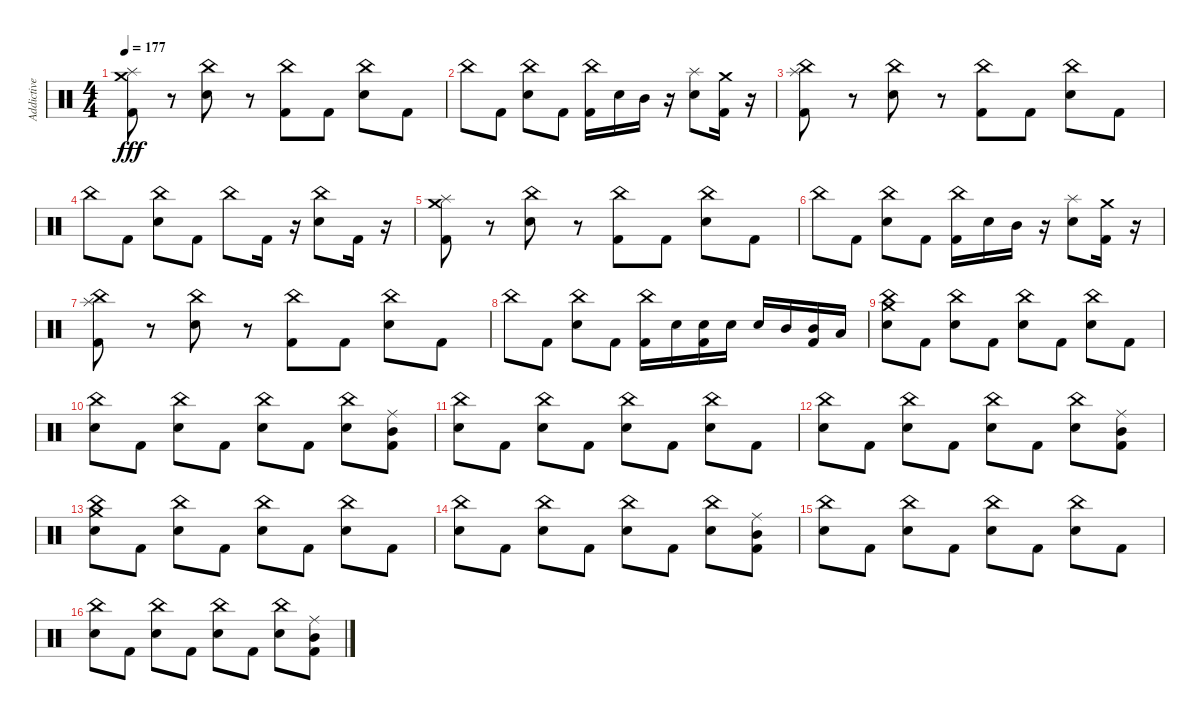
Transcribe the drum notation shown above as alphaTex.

\track ("Addictive" "Addictive") {instrument percussion}
\staff {score}
\articulation defaults
\ts (4 4)
\tempo 177
\clef neutral
\ks c
("Kick (hit) 2" "Splash (hit)" "Crash medium (hit)").8{dy fff} r.8 ("Snare (hit) 2" "China (hit)").8 r.8 ("Kick (hit) 2" "China (hit)").8 "Kick (hit) 2".8 ("Snare (hit) 2" "China (hit)").8 "Kick (hit) 2".8 |
"China (hit)".8 "Kick (hit) 2".8 ("Snare (hit) 2" "China (hit)").8 "Kick (hit) 2".8 ("Kick (hit) 2" "China (hit)").16 "Snare (hit) 2".16 "Mid Tom (hit)".16 r.16 ("Snare (hit) 2" "Splash (hit)").8 ("Kick (hit) 2" "Crash medium (hit)").16 r.16 |
("Kick (hit) 2" "Splash (hit)" "China (hit)").8 r.8 ("Snare (hit) 2" "China (hit)").8 r.8 ("Kick (hit) 2" "China (hit)").8 "Kick (hit) 2".8 ("Snare (hit) 2" "China (hit)").8 "Kick (hit) 2".8 |
"China (hit)".8 "Kick (hit) 2".8 ("Snare (hit) 2" "China (hit)").8 "Kick (hit) 2".8 "China (hit)".8 "Kick (hit) 2".16 r.16 ("Snare (hit) 2" "China (hit)").8 "Kick (hit) 2".16 r.16 |
("Kick (hit) 2" "Splash (hit)" "Crash medium (hit)").8 r.8 ("Snare (hit) 2" "China (hit)").8 r.8 ("Kick (hit) 2" "China (hit)").8 "Kick (hit) 2".8 ("Snare (hit) 2" "China (hit)").8 "Kick (hit) 2".8 |
"China (hit)".8 "Kick (hit) 2".8 ("Snare (hit) 2" "China (hit)").8 "Kick (hit) 2".8 ("Kick (hit) 2" "China (hit)").16 "Snare (hit) 2".16 "Mid Tom (hit)".16 r.16 ("Snare (hit) 2" "Splash (hit)").8 ("Kick (hit) 2" "Crash medium (hit)").16 r.16 |
("Kick (hit) 2" "Splash (hit)" "China (hit)").8 r.8 ("Snare (hit) 2" "China (hit)").8 r.8 ("Kick (hit) 2" "China (hit)").8 "Kick (hit) 2".8 ("Snare (hit) 2" "China (hit)").8 "Kick (hit) 2".8 |
"China (hit)".8 "Kick (hit) 2".8 ("Snare (hit) 2" "China (hit)").8 "Kick (hit) 2".8 ("Kick (hit) 2" "China (hit)").16 "Snare (hit) 2".16 ("Kick (hit) 2" "Snare (hit) 2").16 "Snare (hit) 2".16 "Snare (hit) 2".16 "Mid Tom (hit)".16 ("Kick (hit) 2" "Mid Tom (hit)").16 "Low Tom (hit)".16 |
("Snare (hit) 2" "Crash medium (hit)" "China (hit)").8 "Kick (hit) 2".8 ("Snare (hit) 2" "China (hit)").8 "Kick (hit) 2".8 ("Snare (hit) 2" "China (hit)").8 "Kick (hit) 2".8 ("Snare (hit) 2" "China (hit)").8 "Kick (hit) 2".8 |
("Snare (hit) 2" "China (hit)").8 "Kick (hit) 2".8 ("Snare (hit) 2" "China (hit)").8 "Kick (hit) 2".8 ("Snare (hit) 2" "China (hit)").8 "Kick (hit) 2".8 ("Snare (hit) 2" "China (hit)").8 ("Kick (hit) 2" "Ride (middle)" "Mid Tom (hit)").8 |
("Snare (hit) 2" "China (hit)").8 "Kick (hit) 2".8 ("Snare (hit) 2" "China (hit)").8 "Kick (hit) 2".8 ("Snare (hit) 2" "China (hit)").8 "Kick (hit) 2".8 ("Snare (hit) 2" "China (hit)").8 "Kick (hit) 2".8 |
("Snare (hit) 2" "China (hit)").8 "Kick (hit) 2".8 ("Snare (hit) 2" "China (hit)").8 "Kick (hit) 2".8 ("Snare (hit) 2" "China (hit)").8 "Kick (hit) 2".8 ("Snare (hit) 2" "China (hit)").8 ("Kick (hit) 2" "Ride (middle)" "Mid Tom (hit)").8 |
("Snare (hit) 2" "Crash medium (hit)" "China (hit)").8 "Kick (hit) 2".8 ("Snare (hit) 2" "China (hit)").8 "Kick (hit) 2".8 ("Snare (hit) 2" "China (hit)").8 "Kick (hit) 2".8 ("Snare (hit) 2" "China (hit)").8 "Kick (hit) 2".8 |
("Snare (hit) 2" "China (hit)").8 "Kick (hit) 2".8 ("Snare (hit) 2" "China (hit)").8 "Kick (hit) 2".8 ("Snare (hit) 2" "China (hit)").8 "Kick (hit) 2".8 ("Snare (hit) 2" "China (hit)").8 ("Kick (hit) 2" "Ride (middle)" "Mid Tom (hit)").8 |
("Snare (hit) 2" "China (hit)").8 "Kick (hit) 2".8 ("Snare (hit) 2" "China (hit)").8 "Kick (hit) 2".8 ("Snare (hit) 2" "China (hit)").8 "Kick (hit) 2".8 ("Snare (hit) 2" "China (hit)").8 "Kick (hit) 2".8 |
("Snare (hit) 2" "China (hit)").8 "Kick (hit) 2".8 ("Snare (hit) 2" "China (hit)").8 "Kick (hit) 2".8 ("Snare (hit) 2" "China (hit)").8 "Kick (hit) 2".8 ("Snare (hit) 2" "China (hit)").8 ("Kick (hit) 2" "Ride (middle)" "Mid Tom (hit)").8
